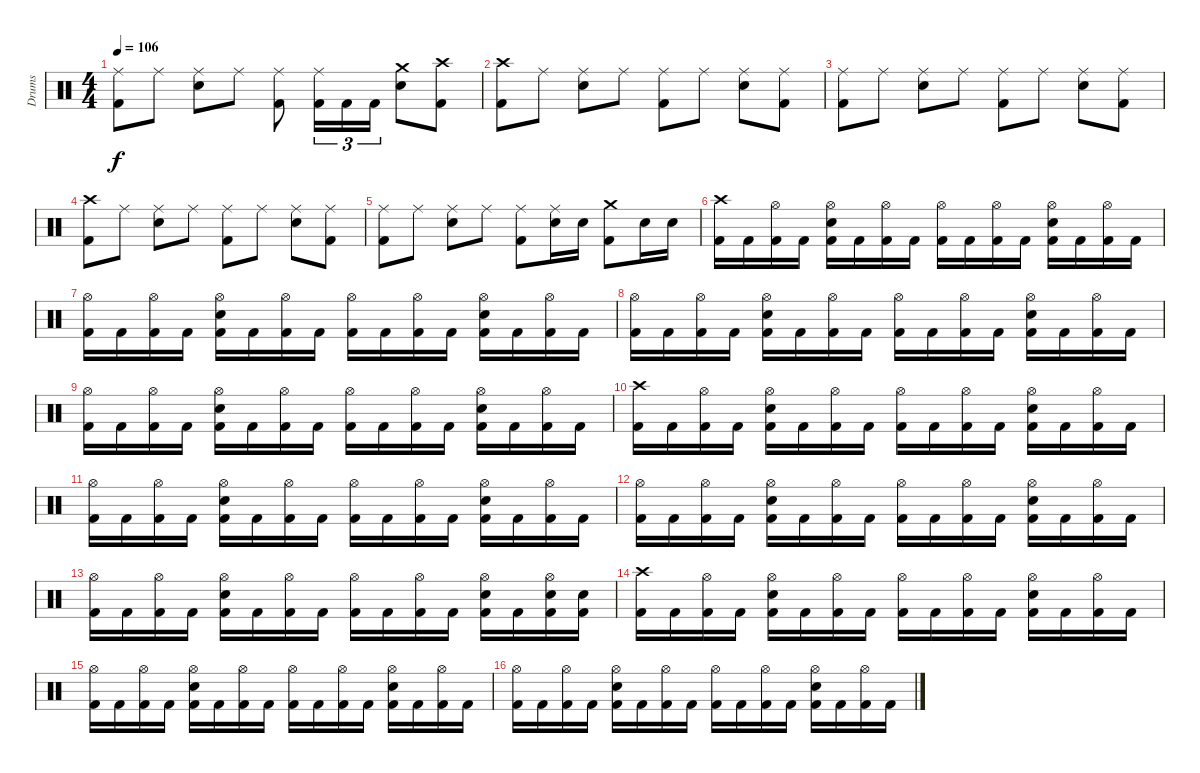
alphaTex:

\track ("Drums" "Drums") {instrument percussion}
\staff {score}
\articulation defaults
\ts (4 4)
\tempo 106
\clef neutral
\ks c
("Ride (middle)" "Kick (hit) 2").8{dy f} "Ride (middle)".8 ("Ride (middle)" "Electric Snare (hit)").8 "Ride (middle)".8 ("Ride (middle)" "Kick (hit) 2").8 ("Ride (middle)" "Kick (hit) 2").16{tu (3 2)} "Kick (hit) 2".16{tu (3 2)} "Kick (hit) 2".16{tu (3 2)} ("Crash medium (hit)" "Electric Snare (hit)").8 ("Crash high (hit)" "Kick (hit) 2").8 |
("Crash high (hit)" "Kick (hit) 2").8 "Ride (middle)".8 ("Ride (middle)" "Electric Snare (hit)").8 "Ride (middle)".8 ("Ride (middle)" "Kick (hit) 2").8 "Ride (middle)".8 ("Ride (middle)" "Electric Snare (hit)").8 ("Ride (middle)" "Kick (hit) 2").8 |
("Ride (middle)" "Kick (hit) 2").8 "Ride (middle)".8 ("Ride (middle)" "Electric Snare (hit)").8 "Ride (middle)".8 ("Ride (middle)" "Kick (hit) 2").8 "Ride (middle)".8 ("Ride (middle)" "Electric Snare (hit)").8 ("Ride (middle)" "Kick (hit) 2").8 |
("Crash high (hit)" "Kick (hit) 2").8 "Ride (middle)".8 ("Ride (middle)" "Electric Snare (hit)").8 "Ride (middle)".8 ("Ride (middle)" "Kick (hit) 2").8 "Ride (middle)".8 ("Ride (middle)" "Electric Snare (hit)").8 ("Ride (middle)" "Kick (hit) 2").8 |
("Ride (middle)" "Kick (hit) 2").8 "Ride (middle)".8 ("Ride (middle)" "Electric Snare (hit)").8 "Ride (middle)".8 ("Ride (middle)" "Kick (hit) 2").8 ("Ride (middle)" "Electric Snare (hit)").16 "Electric Snare (hit)".16 ("Crash medium (hit)" "Kick (hit) 2").8 "Electric Snare (hit)".16 "Electric Snare (hit)".16 |
("Crash high (hit)" "Kick (hit) 2").16 "Kick (hit) 2".16 ("Hi-Hat (open)" "Kick (hit) 2").16 "Kick (hit) 2".16 ("Hi-Hat (open)" "Electric Snare (hit)" "Kick (hit) 2").16 "Kick (hit) 2".16 ("Hi-Hat (open)" "Kick (hit) 2").16 "Kick (hit) 2".16 ("Hi-Hat (open)" "Kick (hit) 2").16 "Kick (hit) 2".16 ("Hi-Hat (open)" "Kick (hit) 2").16 "Kick (hit) 2".16 ("Hi-Hat (open)" "Electric Snare (hit)" "Kick (hit) 2").16 "Kick (hit) 2".16 ("Hi-Hat (open)" "Kick (hit) 2").16 "Kick (hit) 2".16 |
("Hi-Hat (open)" "Kick (hit) 2").16 "Kick (hit) 2".16 ("Hi-Hat (open)" "Kick (hit) 2").16 "Kick (hit) 2".16 ("Hi-Hat (open)" "Electric Snare (hit)" "Kick (hit) 2").16 "Kick (hit) 2".16 ("Hi-Hat (open)" "Kick (hit) 2").16 "Kick (hit) 2".16 ("Hi-Hat (open)" "Kick (hit) 2").16 "Kick (hit) 2".16 ("Hi-Hat (open)" "Kick (hit) 2").16 "Kick (hit) 2".16 ("Hi-Hat (open)" "Electric Snare (hit)" "Kick (hit) 2").16 "Kick (hit) 2".16 ("Hi-Hat (open)" "Kick (hit) 2").16 "Kick (hit) 2".16 |
("Hi-Hat (open)" "Kick (hit) 2").16 "Kick (hit) 2".16 ("Hi-Hat (open)" "Kick (hit) 2").16 "Kick (hit) 2".16 ("Hi-Hat (open)" "Electric Snare (hit)" "Kick (hit) 2").16 "Kick (hit) 2".16 ("Hi-Hat (open)" "Kick (hit) 2").16 "Kick (hit) 2".16 ("Hi-Hat (open)" "Kick (hit) 2").16 "Kick (hit) 2".16 ("Hi-Hat (open)" "Kick (hit) 2").16 "Kick (hit) 2".16 ("Hi-Hat (open)" "Electric Snare (hit)" "Kick (hit) 2").16 "Kick (hit) 2".16 ("Hi-Hat (open)" "Kick (hit) 2").16 "Kick (hit) 2".16 |
("Hi-Hat (open)" "Kick (hit) 2").16 "Kick (hit) 2".16 ("Hi-Hat (open)" "Kick (hit) 2").16 "Kick (hit) 2".16 ("Hi-Hat (open)" "Electric Snare (hit)" "Kick (hit) 2").16 "Kick (hit) 2".16 ("Hi-Hat (open)" "Kick (hit) 2").16 "Kick (hit) 2".16 ("Hi-Hat (open)" "Kick (hit) 2").16 "Kick (hit) 2".16 ("Hi-Hat (open)" "Kick (hit) 2").16 "Kick (hit) 2".16 ("Hi-Hat (open)" "Electric Snare (hit)" "Kick (hit) 2").16 "Kick (hit) 2".16 ("Hi-Hat (open)" "Kick (hit) 2").16 "Kick (hit) 2".16 |
("Crash high (hit)" "Kick (hit) 2").16 "Kick (hit) 2".16 ("Hi-Hat (open)" "Kick (hit) 2").16 "Kick (hit) 2".16 ("Hi-Hat (open)" "Electric Snare (hit)" "Kick (hit) 2").16 "Kick (hit) 2".16 ("Hi-Hat (open)" "Kick (hit) 2").16 "Kick (hit) 2".16 ("Hi-Hat (open)" "Kick (hit) 2").16 "Kick (hit) 2".16 ("Hi-Hat (open)" "Kick (hit) 2").16 "Kick (hit) 2".16 ("Hi-Hat (open)" "Electric Snare (hit)" "Kick (hit) 2").16 "Kick (hit) 2".16 ("Hi-Hat (open)" "Kick (hit) 2").16 "Kick (hit) 2".16 |
("Hi-Hat (open)" "Kick (hit) 2").16 "Kick (hit) 2".16 ("Hi-Hat (open)" "Kick (hit) 2").16 "Kick (hit) 2".16 ("Hi-Hat (open)" "Electric Snare (hit)" "Kick (hit) 2").16 "Kick (hit) 2".16 ("Hi-Hat (open)" "Kick (hit) 2").16 "Kick (hit) 2".16 ("Hi-Hat (open)" "Kick (hit) 2").16 "Kick (hit) 2".16 ("Hi-Hat (open)" "Kick (hit) 2").16 "Kick (hit) 2".16 ("Hi-Hat (open)" "Electric Snare (hit)" "Kick (hit) 2").16 "Kick (hit) 2".16 ("Hi-Hat (open)" "Kick (hit) 2").16 "Kick (hit) 2".16 |
("Hi-Hat (open)" "Kick (hit) 2").16 "Kick (hit) 2".16 ("Hi-Hat (open)" "Kick (hit) 2").16 "Kick (hit) 2".16 ("Hi-Hat (open)" "Electric Snare (hit)" "Kick (hit) 2").16 "Kick (hit) 2".16 ("Hi-Hat (open)" "Kick (hit) 2").16 "Kick (hit) 2".16 ("Hi-Hat (open)" "Kick (hit) 2").16 "Kick (hit) 2".16 ("Hi-Hat (open)" "Kick (hit) 2").16 "Kick (hit) 2".16 ("Hi-Hat (open)" "Electric Snare (hit)" "Kick (hit) 2").16 "Kick (hit) 2".16 ("Hi-Hat (open)" "Kick (hit) 2").16 "Kick (hit) 2".16 |
("Hi-Hat (open)" "Kick (hit) 2").16 "Kick (hit) 2".16 ("Hi-Hat (open)" "Kick (hit) 2").16 "Kick (hit) 2".16 ("Hi-Hat (open)" "Electric Snare (hit)" "Kick (hit) 2").16 "Kick (hit) 2".16 ("Hi-Hat (open)" "Kick (hit) 2").16 "Kick (hit) 2".16 ("Hi-Hat (open)" "Kick (hit) 2").16 "Kick (hit) 2".16 ("Hi-Hat (open)" "Kick (hit) 2").16 "Kick (hit) 2".16 ("Hi-Hat (open)" "Electric Snare (hit)" "Kick (hit) 2").16 "Kick (hit) 2".16 ("Hi-Hat (open)" "Electric Snare (hit)" "Kick (hit) 2").16 ("Electric Snare (hit)" "Kick (hit) 2").16 |
("Crash high (hit)" "Kick (hit) 2").16 "Kick (hit) 2".16 ("Hi-Hat (open)" "Kick (hit) 2").16 "Kick (hit) 2".16 ("Hi-Hat (open)" "Electric Snare (hit)" "Kick (hit) 2").16 "Kick (hit) 2".16 ("Hi-Hat (open)" "Kick (hit) 2").16 "Kick (hit) 2".16 ("Hi-Hat (open)" "Kick (hit) 2").16 "Kick (hit) 2".16 ("Hi-Hat (open)" "Kick (hit) 2").16 "Kick (hit) 2".16 ("Hi-Hat (open)" "Electric Snare (hit)" "Kick (hit) 2").16 "Kick (hit) 2".16 ("Hi-Hat (open)" "Kick (hit) 2").16 "Kick (hit) 2".16 |
("Hi-Hat (open)" "Kick (hit) 2").16 "Kick (hit) 2".16 ("Hi-Hat (open)" "Kick (hit) 2").16 "Kick (hit) 2".16 ("Hi-Hat (open)" "Electric Snare (hit)" "Kick (hit) 2").16 "Kick (hit) 2".16 ("Hi-Hat (open)" "Kick (hit) 2").16 "Kick (hit) 2".16 ("Hi-Hat (open)" "Kick (hit) 2").16 "Kick (hit) 2".16 ("Hi-Hat (open)" "Kick (hit) 2").16 "Kick (hit) 2".16 ("Hi-Hat (open)" "Electric Snare (hit)" "Kick (hit) 2").16 "Kick (hit) 2".16 ("Hi-Hat (open)" "Kick (hit) 2").16 "Kick (hit) 2".16 |
("Hi-Hat (open)" "Kick (hit) 2").16 "Kick (hit) 2".16 ("Hi-Hat (open)" "Kick (hit) 2").16 "Kick (hit) 2".16 ("Hi-Hat (open)" "Electric Snare (hit)" "Kick (hit) 2").16 "Kick (hit) 2".16 ("Hi-Hat (open)" "Kick (hit) 2").16 "Kick (hit) 2".16 ("Hi-Hat (open)" "Kick (hit) 2").16 "Kick (hit) 2".16 ("Hi-Hat (open)" "Kick (hit) 2").16 "Kick (hit) 2".16 ("Hi-Hat (open)" "Electric Snare (hit)" "Kick (hit) 2").16 "Kick (hit) 2".16 ("Hi-Hat (open)" "Kick (hit) 2").16 "Kick (hit) 2".16
